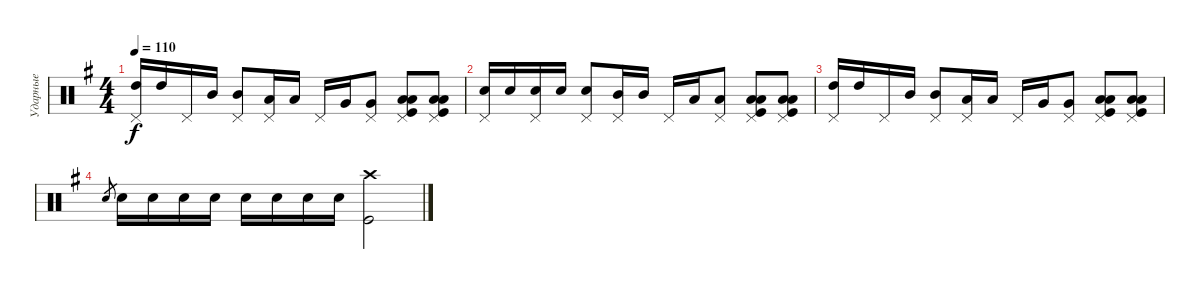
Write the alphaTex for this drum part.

\track ("Ударные" "Ударные") {instrument percussion}
\staff {score}
\articulation defaults
\ts (4 4)
\tempo 110
\clef neutral
\ks eminor
("High Tom (hit)" "Pedal Hi-Hat (hit)").16{dy f} "High Tom (hit)".16 "Pedal Hi-Hat (hit)".16 "Mid Tom (hit)".16 ("Mid Tom (hit)" "Pedal Hi-Hat (hit)").8 ("Low Tom (hit)" "Pedal Hi-Hat (hit)").16 "Low Tom (hit)".16 "Pedal Hi-Hat (hit)".16 "Very Low Tom (hit)".16 ("Very Low Tom (hit)" "Pedal Hi-Hat (hit)").8 ("Low Floor Tom (hit)" "Kick (hit)" "Pedal Hi-Hat (hit)" "Low Floor Tom (hit)").8{bd 120} ("Low Floor Tom (hit)" "Kick (hit)" "Pedal Hi-Hat (hit)" "Low Floor Tom (hit)").8{bd 120} |
("Snare (hit) 2" "Pedal Hi-Hat (hit)").16 "Snare (hit) 2".16 ("Snare (hit) 2" "Pedal Hi-Hat (hit)").16 "Snare (hit) 2".16 ("Snare (hit) 2" "Pedal Hi-Hat (hit)").8 ("Mid Tom (hit)" "Pedal Hi-Hat (hit)").16 "Mid Tom (hit)".16 "Pedal Hi-Hat (hit)".16 "Low Tom (hit)".16 ("Low Tom (hit)" "Pedal Hi-Hat (hit)").8 ("Low Floor Tom (hit)" "Kick (hit)" "Pedal Hi-Hat (hit)" "Low Floor Tom (hit)").8{bd 120} ("Low Floor Tom (hit)" "Kick (hit)" "Pedal Hi-Hat (hit)" "Low Floor Tom (hit)").8{bd 120} |
("High Tom (hit)" "Pedal Hi-Hat (hit)").16 "High Tom (hit)".16 "Pedal Hi-Hat (hit)".16 "Mid Tom (hit)".16 ("Mid Tom (hit)" "Pedal Hi-Hat (hit)").8 ("Low Tom (hit)" "Pedal Hi-Hat (hit)").16 "Low Tom (hit)".16 "Pedal Hi-Hat (hit)".16 "Very Low Tom (hit)".16 ("Very Low Tom (hit)" "Pedal Hi-Hat (hit)").8 ("Low Floor Tom (hit)" "Kick (hit)" "Pedal Hi-Hat (hit)" "Low Floor Tom (hit)").8{bd 120} ("Low Floor Tom (hit)" "Kick (hit)" "Pedal Hi-Hat (hit)" "Low Floor Tom (hit)").8{bd 120} |
"Snare (hit) 2".8{gr} "Snare (hit) 2".16 "Snare (hit) 2".16 "Snare (hit) 2".16 "Snare (hit) 2".16 "Snare (hit) 2".16 "Snare (hit) 2".16 "Snare (hit) 2".16 "Snare (hit) 2".16 ("Kick (hit)" "Crash high (hit)").2
